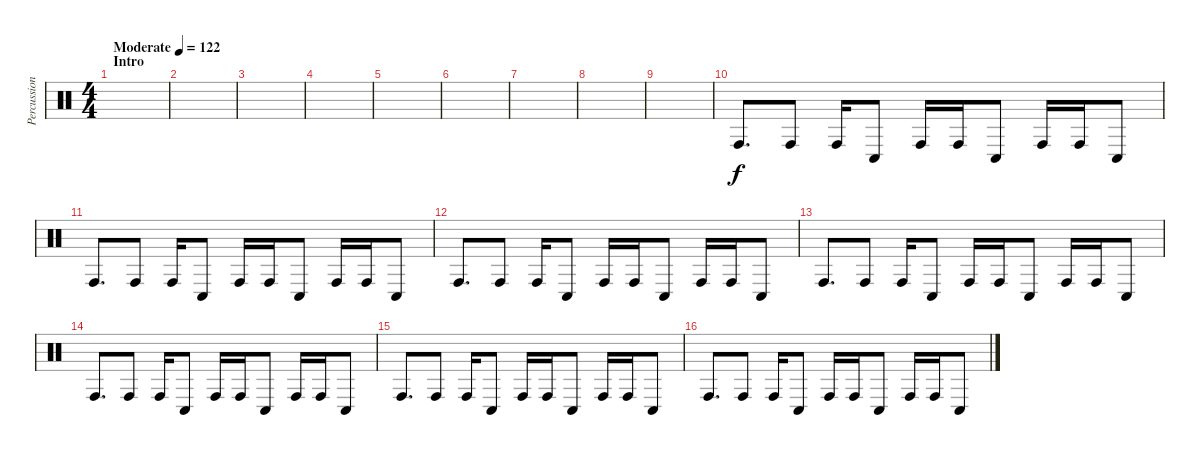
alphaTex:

\track ("Percussion" "Percussion") {instrument percussion}
\staff {score}
\articulation defaults
\ts (4 4)
\section ("" "Intro")
\tempo (122 "Moderate")
\clef neutral
\ks c
|
|
|
|
|
|
|
|
|
"Conga high (hit)".8{d} "Conga high (hit)".8 "Conga high (hit)".16 "Conga low (hit)".8 "Conga high (hit)".16 "Conga high (hit)".16 "Conga low (hit)".8 "Conga high (hit)".16 "Conga high (hit)".16 "Conga low (hit)".8 |
"Conga high (hit)".8{d} "Conga high (hit)".8 "Conga high (hit)".16 "Conga low (hit)".8 "Conga high (hit)".16 "Conga high (hit)".16 "Conga low (hit)".8 "Conga high (hit)".16 "Conga high (hit)".16 "Conga low (hit)".8 |
"Conga high (hit)".8{d} "Conga high (hit)".8 "Conga high (hit)".16 "Conga low (hit)".8 "Conga high (hit)".16 "Conga high (hit)".16 "Conga low (hit)".8 "Conga high (hit)".16 "Conga high (hit)".16 "Conga low (hit)".8 |
"Conga high (hit)".8{d} "Conga high (hit)".8 "Conga high (hit)".16 "Conga low (hit)".8 "Conga high (hit)".16 "Conga high (hit)".16 "Conga low (hit)".8 "Conga high (hit)".16 "Conga high (hit)".16 "Conga low (hit)".8 |
"Conga high (hit)".8{d} "Conga high (hit)".8 "Conga high (hit)".16 "Conga low (hit)".8 "Conga high (hit)".16 "Conga high (hit)".16 "Conga low (hit)".8 "Conga high (hit)".16 "Conga high (hit)".16 "Conga low (hit)".8 |
"Conga high (hit)".8{d} "Conga high (hit)".8 "Conga high (hit)".16 "Conga low (hit)".8 "Conga high (hit)".16 "Conga high (hit)".16 "Conga low (hit)".8 "Conga high (hit)".16 "Conga high (hit)".16 "Conga low (hit)".8 |
"Conga high (hit)".8{d} "Conga high (hit)".8 "Conga high (hit)".16 "Conga low (hit)".8 "Conga high (hit)".16 "Conga high (hit)".16 "Conga low (hit)".8 "Conga high (hit)".16 "Conga high (hit)".16 "Conga low (hit)".8
